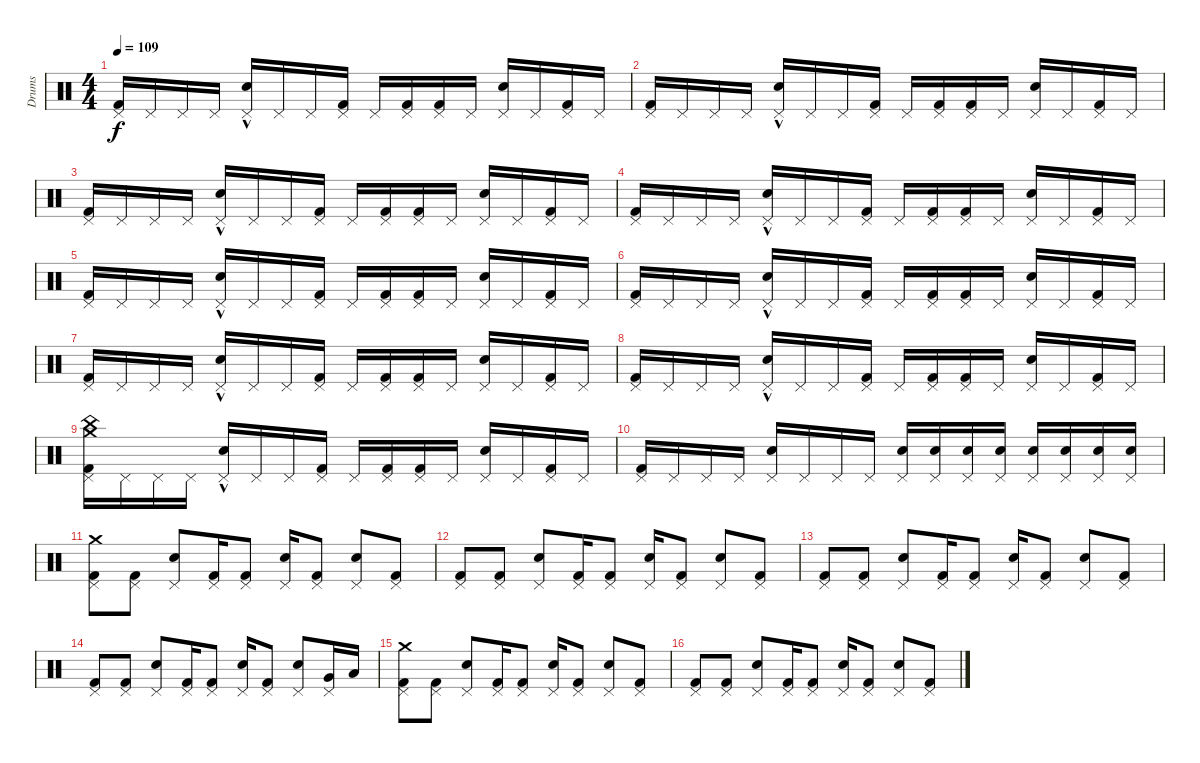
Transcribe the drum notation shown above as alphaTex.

\track ("Drums" "Drums") {instrument percussion}
\staff {score}
\articulation defaults
\ts (4 4)
\tempo 109
\clef neutral
\ks c
("Pedal Hi-Hat (hit)" "Kick (hit) 2").16{dy f} "Pedal Hi-Hat (hit)".16 "Pedal Hi-Hat (hit)".16 "Pedal Hi-Hat (hit)".16 ("Pedal Hi-Hat (hit)" "Snare (hit) 2"{hac}).16 "Pedal Hi-Hat (hit)".16 "Pedal Hi-Hat (hit)".16 ("Pedal Hi-Hat (hit)" "Kick (hit) 2").16 "Pedal Hi-Hat (hit)".16 ("Pedal Hi-Hat (hit)" "Kick (hit) 2").16 ("Pedal Hi-Hat (hit)" "Kick (hit) 2").16 "Pedal Hi-Hat (hit)".16 ("Pedal Hi-Hat (hit)" "Snare (hit) 2").16 "Pedal Hi-Hat (hit)".16 ("Pedal Hi-Hat (hit)" "Kick (hit) 2").16 "Pedal Hi-Hat (hit)".16 |
("Pedal Hi-Hat (hit)" "Kick (hit) 2").16 "Pedal Hi-Hat (hit)".16 "Pedal Hi-Hat (hit)".16 "Pedal Hi-Hat (hit)".16 ("Pedal Hi-Hat (hit)" "Snare (hit) 2"{hac}).16 "Pedal Hi-Hat (hit)".16 "Pedal Hi-Hat (hit)".16 ("Pedal Hi-Hat (hit)" "Kick (hit) 2").16 "Pedal Hi-Hat (hit)".16 ("Pedal Hi-Hat (hit)" "Kick (hit) 2").16 ("Pedal Hi-Hat (hit)" "Kick (hit) 2").16 "Pedal Hi-Hat (hit)".16 ("Pedal Hi-Hat (hit)" "Snare (hit) 2").16 "Pedal Hi-Hat (hit)".16 ("Pedal Hi-Hat (hit)" "Kick (hit) 2").16 "Pedal Hi-Hat (hit)".16 |
("Pedal Hi-Hat (hit)" "Kick (hit) 2").16 "Pedal Hi-Hat (hit)".16 "Pedal Hi-Hat (hit)".16 "Pedal Hi-Hat (hit)".16 ("Pedal Hi-Hat (hit)" "Snare (hit) 2"{hac}).16 "Pedal Hi-Hat (hit)".16 "Pedal Hi-Hat (hit)".16 ("Pedal Hi-Hat (hit)" "Kick (hit) 2").16 "Pedal Hi-Hat (hit)".16 ("Pedal Hi-Hat (hit)" "Kick (hit) 2").16 ("Pedal Hi-Hat (hit)" "Kick (hit) 2").16 "Pedal Hi-Hat (hit)".16 ("Pedal Hi-Hat (hit)" "Snare (hit) 2").16 "Pedal Hi-Hat (hit)".16 ("Pedal Hi-Hat (hit)" "Kick (hit) 2").16 "Pedal Hi-Hat (hit)".16 |
("Pedal Hi-Hat (hit)" "Kick (hit) 2").16 "Pedal Hi-Hat (hit)".16 "Pedal Hi-Hat (hit)".16 "Pedal Hi-Hat (hit)".16 ("Pedal Hi-Hat (hit)" "Snare (hit) 2"{hac}).16 "Pedal Hi-Hat (hit)".16 "Pedal Hi-Hat (hit)".16 ("Pedal Hi-Hat (hit)" "Kick (hit) 2").16 "Pedal Hi-Hat (hit)".16 ("Pedal Hi-Hat (hit)" "Kick (hit) 2").16 ("Pedal Hi-Hat (hit)" "Kick (hit) 2").16 "Pedal Hi-Hat (hit)".16 ("Pedal Hi-Hat (hit)" "Snare (hit) 2").16 "Pedal Hi-Hat (hit)".16 ("Pedal Hi-Hat (hit)" "Kick (hit) 2").16 "Pedal Hi-Hat (hit)".16 |
("Pedal Hi-Hat (hit)" "Kick (hit) 2").16 "Pedal Hi-Hat (hit)".16 "Pedal Hi-Hat (hit)".16 "Pedal Hi-Hat (hit)".16 ("Pedal Hi-Hat (hit)" "Snare (hit) 2"{hac}).16 "Pedal Hi-Hat (hit)".16 "Pedal Hi-Hat (hit)".16 ("Pedal Hi-Hat (hit)" "Kick (hit) 2").16 "Pedal Hi-Hat (hit)".16 ("Pedal Hi-Hat (hit)" "Kick (hit) 2").16 ("Pedal Hi-Hat (hit)" "Kick (hit) 2").16 "Pedal Hi-Hat (hit)".16 ("Pedal Hi-Hat (hit)" "Snare (hit) 2").16 "Pedal Hi-Hat (hit)".16 ("Pedal Hi-Hat (hit)" "Kick (hit) 2").16 "Pedal Hi-Hat (hit)".16 |
("Pedal Hi-Hat (hit)" "Kick (hit) 2").16 "Pedal Hi-Hat (hit)".16 "Pedal Hi-Hat (hit)".16 "Pedal Hi-Hat (hit)".16 ("Pedal Hi-Hat (hit)" "Snare (hit) 2"{hac}).16 "Pedal Hi-Hat (hit)".16 "Pedal Hi-Hat (hit)".16 ("Pedal Hi-Hat (hit)" "Kick (hit) 2").16 "Pedal Hi-Hat (hit)".16 ("Pedal Hi-Hat (hit)" "Kick (hit) 2").16 ("Pedal Hi-Hat (hit)" "Kick (hit) 2").16 "Pedal Hi-Hat (hit)".16 ("Pedal Hi-Hat (hit)" "Snare (hit) 2").16 "Pedal Hi-Hat (hit)".16 ("Pedal Hi-Hat (hit)" "Kick (hit) 2").16 "Pedal Hi-Hat (hit)".16 |
("Pedal Hi-Hat (hit)" "Kick (hit) 2").16 "Pedal Hi-Hat (hit)".16 "Pedal Hi-Hat (hit)".16 "Pedal Hi-Hat (hit)".16 ("Pedal Hi-Hat (hit)" "Snare (hit) 2"{hac}).16 "Pedal Hi-Hat (hit)".16 "Pedal Hi-Hat (hit)".16 ("Pedal Hi-Hat (hit)" "Kick (hit) 2").16 "Pedal Hi-Hat (hit)".16 ("Pedal Hi-Hat (hit)" "Kick (hit) 2").16 ("Pedal Hi-Hat (hit)" "Kick (hit) 2").16 "Pedal Hi-Hat (hit)".16 ("Pedal Hi-Hat (hit)" "Snare (hit) 2").16 "Pedal Hi-Hat (hit)".16 ("Pedal Hi-Hat (hit)" "Kick (hit) 2").16 "Pedal Hi-Hat (hit)".16 |
("Pedal Hi-Hat (hit)" "Kick (hit) 2").16 "Pedal Hi-Hat (hit)".16 "Pedal Hi-Hat (hit)".16 "Pedal Hi-Hat (hit)".16 ("Pedal Hi-Hat (hit)" "Snare (hit) 2"{hac}).16 "Pedal Hi-Hat (hit)".16 "Pedal Hi-Hat (hit)".16 ("Pedal Hi-Hat (hit)" "Kick (hit) 2").16 "Pedal Hi-Hat (hit)".16 ("Pedal Hi-Hat (hit)" "Kick (hit) 2").16 ("Pedal Hi-Hat (hit)" "Kick (hit) 2").16 "Pedal Hi-Hat (hit)".16 ("Pedal Hi-Hat (hit)" "Snare (hit) 2").16 "Pedal Hi-Hat (hit)".16 ("Pedal Hi-Hat (hit)" "Kick (hit) 2").16 "Pedal Hi-Hat (hit)".16 |
("Crash medium (hit)" "China (hit)" "Pedal Hi-Hat (hit)" "Kick (hit) 2").16 "Pedal Hi-Hat (hit)".16 "Pedal Hi-Hat (hit)".16 "Pedal Hi-Hat (hit)".16 ("Pedal Hi-Hat (hit)" "Snare (hit) 2"{hac}).16 "Pedal Hi-Hat (hit)".16 "Pedal Hi-Hat (hit)".16 ("Pedal Hi-Hat (hit)" "Kick (hit) 2").16 "Pedal Hi-Hat (hit)".16 ("Pedal Hi-Hat (hit)" "Kick (hit) 2").16 ("Pedal Hi-Hat (hit)" "Kick (hit) 2").16 "Pedal Hi-Hat (hit)".16 ("Pedal Hi-Hat (hit)" "Snare (hit) 2").16 "Pedal Hi-Hat (hit)".16 ("Pedal Hi-Hat (hit)" "Kick (hit) 2").16 "Pedal Hi-Hat (hit)".16 |
("Pedal Hi-Hat (hit)" "Kick (hit) 2").16 "Pedal Hi-Hat (hit)".16 "Pedal Hi-Hat (hit)".16 "Pedal Hi-Hat (hit)".16 ("Pedal Hi-Hat (hit)" "Snare (hit) 2").16 "Pedal Hi-Hat (hit)".16 "Pedal Hi-Hat (hit)".16 "Pedal Hi-Hat (hit)".16 ("Snare (hit) 2" "Pedal Hi-Hat (hit)").16 ("Snare (hit) 2" "Pedal Hi-Hat (hit)").16 ("Snare (hit) 2" "Pedal Hi-Hat (hit)").16 ("Snare (hit) 2" "Pedal Hi-Hat (hit)").16 ("Snare (hit) 2" "Pedal Hi-Hat (hit)").16 ("Snare (hit) 2" "Pedal Hi-Hat (hit)").16 ("Snare (hit) 2" "Pedal Hi-Hat (hit)").16 ("Snare (hit) 2" "Pedal Hi-Hat (hit)").16 |
("Crash medium (hit)" "Pedal Hi-Hat (hit)" "Kick (hit) 2").8 ("Pedal Hi-Hat (hit)" "Kick (hit) 2").8 ("Pedal Hi-Hat (hit)" "Snare (hit) 2").8 ("Pedal Hi-Hat (hit)" "Kick (hit) 2").16 ("Pedal Hi-Hat (hit)" "Kick (hit) 2").8 ("Pedal Hi-Hat (hit)" "Snare (hit) 2").16 ("Pedal Hi-Hat (hit)" "Kick (hit) 2").8 ("Pedal Hi-Hat (hit)" "Snare (hit) 2").8 ("Pedal Hi-Hat (hit)" "Kick (hit) 2").8 |
("Pedal Hi-Hat (hit)" "Kick (hit) 2").8 ("Pedal Hi-Hat (hit)" "Kick (hit) 2").8 ("Pedal Hi-Hat (hit)" "Snare (hit) 2").8 ("Pedal Hi-Hat (hit)" "Kick (hit) 2").16 ("Pedal Hi-Hat (hit)" "Kick (hit) 2").8 ("Pedal Hi-Hat (hit)" "Snare (hit) 2").16 ("Pedal Hi-Hat (hit)" "Kick (hit) 2").8 ("Pedal Hi-Hat (hit)" "Snare (hit) 2").8 ("Pedal Hi-Hat (hit)" "Kick (hit) 2").8 |
("Pedal Hi-Hat (hit)" "Kick (hit) 2").8 ("Pedal Hi-Hat (hit)" "Kick (hit) 2").8 ("Pedal Hi-Hat (hit)" "Snare (hit) 2").8 ("Pedal Hi-Hat (hit)" "Kick (hit) 2").16 ("Pedal Hi-Hat (hit)" "Kick (hit) 2").8 ("Pedal Hi-Hat (hit)" "Snare (hit) 2").16 ("Pedal Hi-Hat (hit)" "Kick (hit) 2").8 ("Pedal Hi-Hat (hit)" "Snare (hit) 2").8 ("Pedal Hi-Hat (hit)" "Kick (hit) 2").8 |
("Pedal Hi-Hat (hit)" "Kick (hit) 2").8 ("Pedal Hi-Hat (hit)" "Kick (hit) 2").8 ("Pedal Hi-Hat (hit)" "Snare (hit) 2").8 ("Pedal Hi-Hat (hit)" "Kick (hit) 2").16 ("Pedal Hi-Hat (hit)" "Kick (hit) 2").8 ("Pedal Hi-Hat (hit)" "Snare (hit) 2").16 ("Pedal Hi-Hat (hit)" "Kick (hit) 2").8 ("Pedal Hi-Hat (hit)" "Snare (hit) 2").8 ("Very Low Tom (hit)" "Pedal Hi-Hat (hit)").16 "Low Floor Tom (hit)".16 |
("Crash medium (hit)" "Pedal Hi-Hat (hit)" "Kick (hit) 2").8 ("Pedal Hi-Hat (hit)" "Kick (hit) 2").8 ("Pedal Hi-Hat (hit)" "Snare (hit) 2").8 ("Pedal Hi-Hat (hit)" "Kick (hit) 2").16 ("Pedal Hi-Hat (hit)" "Kick (hit) 2").8 ("Pedal Hi-Hat (hit)" "Snare (hit) 2").16 ("Pedal Hi-Hat (hit)" "Kick (hit) 2").8 ("Pedal Hi-Hat (hit)" "Snare (hit) 2").8 ("Pedal Hi-Hat (hit)" "Kick (hit) 2").8 |
("Pedal Hi-Hat (hit)" "Kick (hit) 2").8 ("Pedal Hi-Hat (hit)" "Kick (hit) 2").8 ("Pedal Hi-Hat (hit)" "Snare (hit) 2").8 ("Pedal Hi-Hat (hit)" "Kick (hit) 2").16 ("Pedal Hi-Hat (hit)" "Kick (hit) 2").8 ("Pedal Hi-Hat (hit)" "Snare (hit) 2").16 ("Pedal Hi-Hat (hit)" "Kick (hit) 2").8 ("Pedal Hi-Hat (hit)" "Snare (hit) 2").8 ("Pedal Hi-Hat (hit)" "Kick (hit) 2").8
